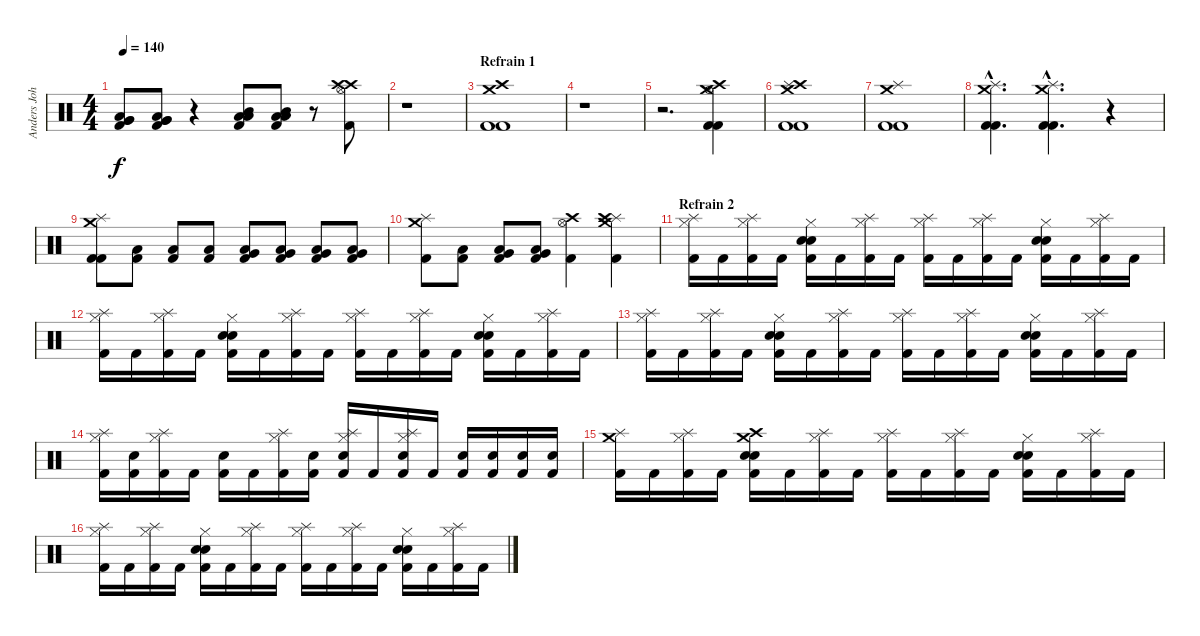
\track ("Anders Johansson :: Drums" "Anders Joh") {instrument percussion}
\staff {score}
\articulation defaults
\ts (4 4)
\tempo 140
\clef neutral
\ks c
("Low Tom (hit)" "Very Low Tom (hit)" "Very Low Tom (hit)" "Kick (hit) 2").8{dy f} ("Low Tom (hit)" "Very Low Tom (hit)" "Very Low Tom (hit)" "Kick (hit) 2").8 r.4 ("Mid Tom (hit)" "Low Tom (hit)" "Low Tom (hit)" "Kick (hit) 2").8 ("Mid Tom (hit)" "Low Tom (hit)" "Low Tom (hit)" "Kick (hit) 2").8 r.8 ("Crash high (hit)" "Hi-Hat (open)" "Crash high (hit)" "Kick (hit) 2").8 |
r.1 |
\section ("" "Refrain 1")
("Crash high (hit)" "Crash medium (hit)" "Kick (hit) 2" "Kick (hit) 2").1 |
r.1 |
r.2{d} ("Crash high (hit)" "Crash medium (hit)" "Hi-Hat (open)" "Kick (hit) 2" "Kick (hit) 2").4 |
("Crash high (hit)" "Crash medium (hit)" "Splash (hit)" "Kick (hit) 2" "Kick (hit) 2").1 |
("Crash medium (hit)" "Splash (hit)" "Kick (hit) 2" "Kick (hit) 2").1 |
("Crash medium (hit)"{hac} "Splash (hit)"{hac} "Kick (hit) 2"{hac} "Kick (hit) 2"{hac}).4{d} ("Crash medium (hit)"{hac} "Splash (hit)"{hac} "Kick (hit) 2"{hac} "Kick (hit) 2"{hac}).4{d} r.4 |
("Crash medium (hit)" "Splash (hit)" "Kick (hit) 2" "Kick (hit) 2").8 ("Low Floor Tom (hit)" "Kick (hit) 2").8 ("Low Floor Tom (hit)" "Kick (hit) 2").8 ("Low Floor Tom (hit)" "Kick (hit) 2").8 ("Very Low Tom (hit)" "Low Floor Tom (hit)" "Kick (hit) 2").8 ("Very Low Tom (hit)" "Low Floor Tom (hit)" "Kick (hit) 2").8 ("Very Low Tom (hit)" "Low Floor Tom (hit)" "Kick (hit) 2").8 ("Very Low Tom (hit)" "Low Floor Tom (hit)" "Kick (hit) 2").8 |
("Crash medium (hit)" "Splash (hit)" "Kick (hit) 2").8 ("Low Floor Tom (hit)" "Kick (hit) 2").8 ("Very Low Tom (hit)" "Low Floor Tom (hit)" "Kick (hit) 2").8 ("Very Low Tom (hit)" "Low Floor Tom (hit)" "Kick (hit) 2").8 ("Crash high (hit)" "Hi-Hat (open)" "Kick (hit) 2").4 ("Crash medium (hit)" "Splash (hit)" "Crash high (hit)" "Kick (hit) 2").4 |
\section ("" "Refrain 2")
("Hi-Hat (closed)" "Splash (hit)" "Kick (hit) 2").16 "Kick (hit) 2".16 ("Hi-Hat (closed)" "Splash (hit)" "Kick (hit) 2").16 "Kick (hit) 2".16 ("Hi-Hat (closed)" "Snare (hit) 2" "Snare (hit) 2" "Kick (hit) 2").16 "Kick (hit) 2".16 ("Hi-Hat (closed)" "Splash (hit)" "Kick (hit) 2").16 "Kick (hit) 2".16 ("Hi-Hat (closed)" "Splash (hit)" "Kick (hit) 2").16 "Kick (hit) 2".16 ("Hi-Hat (closed)" "Splash (hit)" "Kick (hit) 2").16 "Kick (hit) 2".16 ("Hi-Hat (closed)" "Snare (hit) 2" "Snare (hit) 2" "Kick (hit) 2").16 "Kick (hit) 2".16 ("Hi-Hat (closed)" "Splash (hit)" "Kick (hit) 2").16 "Kick (hit) 2".16 |
("Hi-Hat (closed)" "Splash (hit)" "Kick (hit) 2").16 "Kick (hit) 2".16 ("Hi-Hat (closed)" "Splash (hit)" "Kick (hit) 2").16 "Kick (hit) 2".16 ("Hi-Hat (closed)" "Snare (hit) 2" "Snare (hit) 2" "Kick (hit) 2").16 "Kick (hit) 2".16 ("Hi-Hat (closed)" "Splash (hit)" "Kick (hit) 2").16 "Kick (hit) 2".16 ("Hi-Hat (closed)" "Splash (hit)" "Kick (hit) 2").16 "Kick (hit) 2".16 ("Hi-Hat (closed)" "Splash (hit)" "Kick (hit) 2").16 "Kick (hit) 2".16 ("Hi-Hat (closed)" "Snare (hit) 2" "Snare (hit) 2" "Kick (hit) 2").16 "Kick (hit) 2".16 ("Hi-Hat (closed)" "Splash (hit)" "Kick (hit) 2").16 "Kick (hit) 2".16 |
("Hi-Hat (closed)" "Splash (hit)" "Kick (hit) 2").16 "Kick (hit) 2".16 ("Hi-Hat (closed)" "Splash (hit)" "Kick (hit) 2").16 "Kick (hit) 2".16 ("Hi-Hat (closed)" "Snare (hit) 2" "Snare (hit) 2" "Kick (hit) 2").16 "Kick (hit) 2".16 ("Hi-Hat (closed)" "Splash (hit)" "Kick (hit) 2").16 "Kick (hit) 2".16 ("Hi-Hat (closed)" "Splash (hit)" "Kick (hit) 2").16 "Kick (hit) 2".16 ("Hi-Hat (closed)" "Splash (hit)" "Kick (hit) 2").16 "Kick (hit) 2".16 ("Hi-Hat (closed)" "Snare (hit) 2" "Snare (hit) 2" "Kick (hit) 2").16 "Kick (hit) 2".16 ("Hi-Hat (closed)" "Splash (hit)" "Kick (hit) 2").16 "Kick (hit) 2".16 |
("Hi-Hat (closed)" "Splash (hit)" "Kick (hit) 2").16 ("Snare (hit) 2" "Kick (hit) 2").16 ("Hi-Hat (closed)" "Splash (hit)" "Kick (hit) 2").16 "Kick (hit) 2".16 ("Snare (hit) 2" "Kick (hit) 2").16 "Kick (hit) 2".16 ("Hi-Hat (closed)" "Splash (hit)" "Kick (hit) 2").16 ("Snare (hit) 2" "Kick (hit) 2").16 ("Hi-Hat (closed)" "Splash (hit)" "Snare (hit) 2" "Kick (hit) 2").16 "Kick (hit) 2".16 ("Hi-Hat (closed)" "Splash (hit)" "Snare (hit) 2" "Kick (hit) 2").16 "Kick (hit) 2".16 ("Snare (hit) 2" "Kick (hit) 2").16 ("Snare (hit) 2" "Kick (hit) 2").16 ("Snare (hit) 2" "Kick (hit) 2").16 ("Snare (hit) 2" "Kick (hit) 2").16 |
("Crash medium (hit)" "Splash (hit)" "Kick (hit) 2").16 "Kick (hit) 2".16 ("Hi-Hat (closed)" "Splash (hit)" "Kick (hit) 2").16 "Kick (hit) 2".16 ("Crash medium (hit)" "Crash high (hit)" "Snare (hit) 2" "Snare (hit) 2" "Kick (hit) 2").16 "Kick (hit) 2".16 ("Hi-Hat (closed)" "Splash (hit)" "Kick (hit) 2").16 "Kick (hit) 2".16 ("Hi-Hat (closed)" "Splash (hit)" "Kick (hit) 2").16 "Kick (hit) 2".16 ("Hi-Hat (closed)" "Splash (hit)" "Kick (hit) 2").16 "Kick (hit) 2".16 ("Hi-Hat (closed)" "Snare (hit) 2" "Snare (hit) 2" "Kick (hit) 2").16 "Kick (hit) 2".16 ("Hi-Hat (closed)" "Splash (hit)" "Kick (hit) 2").16 "Kick (hit) 2".16 |
("Hi-Hat (closed)" "Splash (hit)" "Kick (hit) 2").16 "Kick (hit) 2".16 ("Hi-Hat (closed)" "Splash (hit)" "Kick (hit) 2").16 "Kick (hit) 2".16 ("Hi-Hat (closed)" "Snare (hit) 2" "Snare (hit) 2" "Kick (hit) 2").16 "Kick (hit) 2".16 ("Hi-Hat (closed)" "Splash (hit)" "Kick (hit) 2").16 "Kick (hit) 2".16 ("Hi-Hat (closed)" "Splash (hit)" "Kick (hit) 2").16 "Kick (hit) 2".16 ("Hi-Hat (closed)" "Splash (hit)" "Kick (hit) 2").16 "Kick (hit) 2".16 ("Hi-Hat (closed)" "Snare (hit) 2" "Snare (hit) 2" "Kick (hit) 2").16 "Kick (hit) 2".16 ("Hi-Hat (closed)" "Splash (hit)" "Kick (hit) 2").16 "Kick (hit) 2".16
